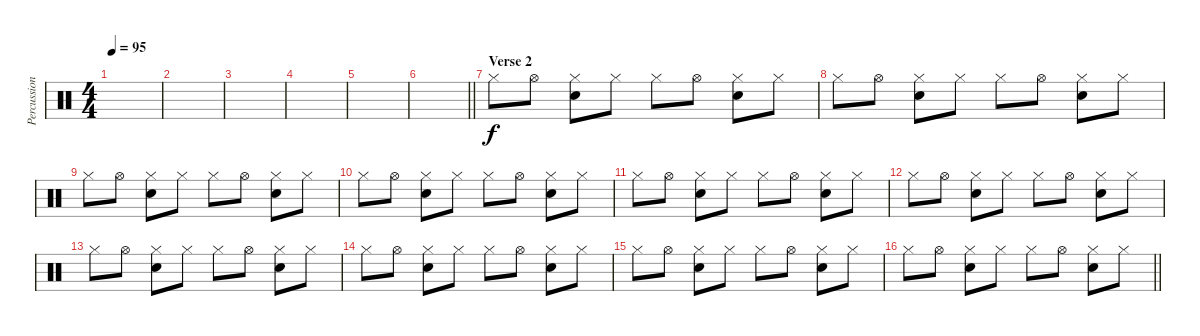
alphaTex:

\track ("Percussion" "Percussion") {instrument percussion}
\staff {score}
\articulation defaults
\ts (4 4)
\tempo 95
\clef neutral
\ks c
|
|
|
|
|
\barLineRight lightlight
|
\section ("" "Verse 2")
"Hi-Hat (closed)".8{volume 11} "Hi-Hat (open)".8 ("Hi-Hat (closed)" "Snare (hit) 2").8 "Hi-Hat (closed)".8 "Hi-Hat (closed)".8 "Hi-Hat (open)".8 ("Hi-Hat (closed)" "Snare (hit) 2").8 "Hi-Hat (closed)".8 |
"Hi-Hat (closed)".8 "Hi-Hat (open)".8 ("Hi-Hat (closed)" "Snare (hit) 2").8 "Hi-Hat (closed)".8 "Hi-Hat (closed)".8 "Hi-Hat (open)".8 ("Hi-Hat (closed)" "Snare (hit) 2").8 "Hi-Hat (closed)".8 |
"Hi-Hat (closed)".8 "Hi-Hat (open)".8 ("Hi-Hat (closed)" "Snare (hit) 2").8 "Hi-Hat (closed)".8 "Hi-Hat (closed)".8 "Hi-Hat (open)".8 ("Hi-Hat (closed)" "Snare (hit) 2").8 "Hi-Hat (closed)".8 |
"Hi-Hat (closed)".8 "Hi-Hat (open)".8 ("Hi-Hat (closed)" "Snare (hit) 2").8 "Hi-Hat (closed)".8 "Hi-Hat (closed)".8 "Hi-Hat (open)".8 ("Hi-Hat (closed)" "Snare (hit) 2").8 "Hi-Hat (closed)".8 |
"Hi-Hat (closed)".8 "Hi-Hat (open)".8 ("Hi-Hat (closed)" "Snare (hit) 2").8 "Hi-Hat (closed)".8 "Hi-Hat (closed)".8 "Hi-Hat (open)".8 ("Hi-Hat (closed)" "Snare (hit) 2").8 "Hi-Hat (closed)".8 |
"Hi-Hat (closed)".8 "Hi-Hat (open)".8 ("Hi-Hat (closed)" "Snare (hit) 2").8 "Hi-Hat (closed)".8 "Hi-Hat (closed)".8 "Hi-Hat (open)".8 ("Hi-Hat (closed)" "Snare (hit) 2").8 "Hi-Hat (closed)".8 |
"Hi-Hat (closed)".8 "Hi-Hat (open)".8 ("Hi-Hat (closed)" "Snare (hit) 2").8 "Hi-Hat (closed)".8 "Hi-Hat (closed)".8 "Hi-Hat (open)".8 ("Hi-Hat (closed)" "Snare (hit) 2").8 "Hi-Hat (closed)".8 |
"Hi-Hat (closed)".8 "Hi-Hat (open)".8 ("Hi-Hat (closed)" "Snare (hit) 2").8 "Hi-Hat (closed)".8 "Hi-Hat (closed)".8 "Hi-Hat (open)".8 ("Hi-Hat (closed)" "Snare (hit) 2").8 "Hi-Hat (closed)".8 |
"Hi-Hat (closed)".8 "Hi-Hat (open)".8 ("Hi-Hat (closed)" "Snare (hit) 2").8 "Hi-Hat (closed)".8 "Hi-Hat (closed)".8 "Hi-Hat (open)".8 ("Hi-Hat (closed)" "Snare (hit) 2").8 "Hi-Hat (closed)".8 |
\barLineRight lightlight "Hi-Hat (closed)".8 "Hi-Hat (open)".8
("Hi-Hat (closed)" "Snare (hit) 2").8 "Hi-Hat (closed)".8 "Hi-Hat (closed)".8 "Hi-Hat (open)".8 ("Hi-Hat (closed)" "Snare (hit) 2").8 "Hi-Hat (closed)".8
